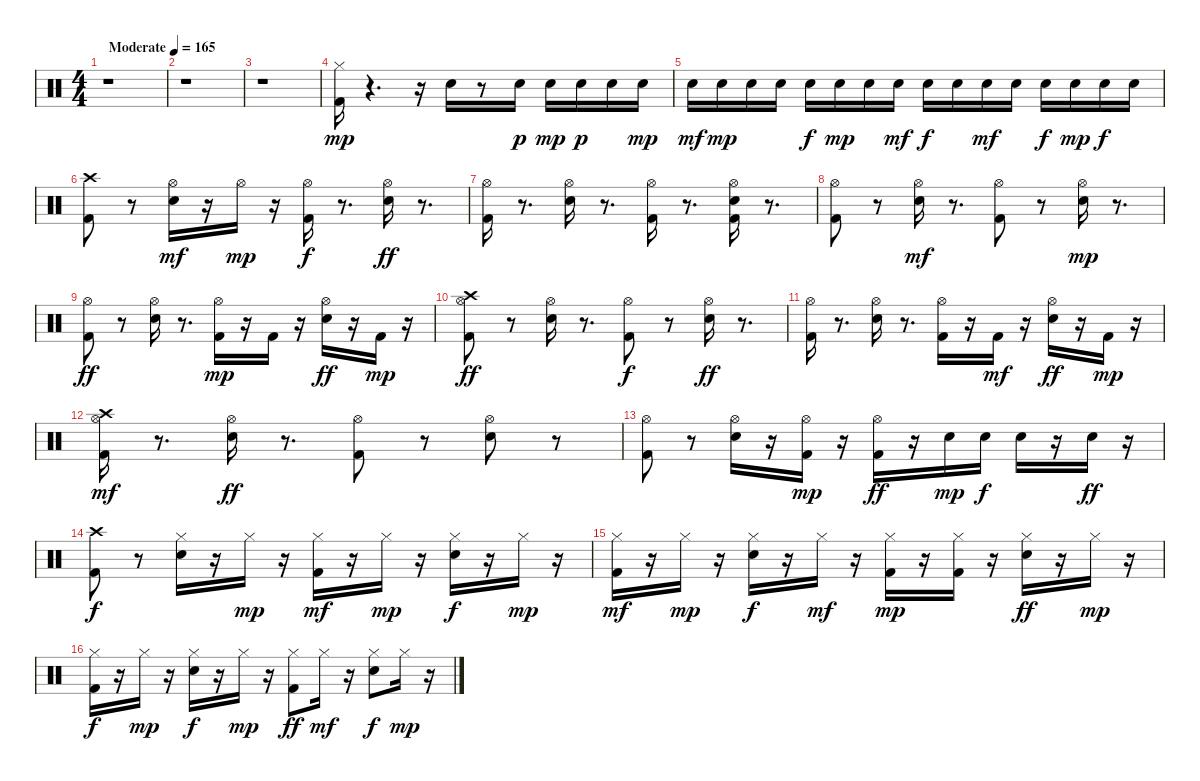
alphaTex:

\track "" {instrument percussion}
\staff {score}
\articulation defaults
\ts (4 4)
\tempo (165 "Moderate")
\clef neutral
\ks c
r.1{dy mp} |
r.1 |
r.1 |
("Kick (hit) 2" "Hi-Hat (closed)").16 r.4{d} r.16 "Electric Snare (hit)".16 r.8 "Electric Snare (hit)".16{dy p} "Electric Snare (hit)".16{dy mp} "Electric Snare (hit)".16{dy p} "Electric Snare (hit)".16 "Electric Snare (hit)".16{dy mp} |
"Electric Snare (hit)".16{dy mf} "Electric Snare (hit)".16{dy mp} "Electric Snare (hit)".16 "Electric Snare (hit)".16 "Electric Snare (hit)".16{dy f} "Electric Snare (hit)".16{dy mp} "Electric Snare (hit)".16 "Electric Snare (hit)".16{dy mf} "Electric Snare (hit)".16{dy f} "Electric Snare (hit)".16 "Electric Snare (hit)".16{dy mf} "Electric Snare (hit)".16 "Electric Snare (hit)".16{dy f} "Electric Snare (hit)".16{dy mp} "Electric Snare (hit)".16{dy f} "Electric Snare (hit)".16 |
("Crash high (hit)" "Kick (hit) 2").8 r.8 ("Electric Snare (hit)" "Hi-Hat (open)").16{dy mf} r.16 "Hi-Hat (open)".16{dy mp} r.16 ("Hi-Hat (open)" "Kick (hit) 2").16{dy f} r.8{d} ("Electric Snare (hit)" "Hi-Hat (open)").16{dy ff} r.8{d} |
("Kick (hit) 2" "Hi-Hat (open)").16 r.8{d} ("Electric Snare (hit)" "Hi-Hat (open)").16 r.8{d} ("Kick (hit) 2" "Hi-Hat (open)").16 r.8{d} ("Kick (hit) 2" "Hi-Hat (open)" "Electric Snare (hit)").16 r.8{d} |
("Kick (hit) 2" "Hi-Hat (open)").8 r.8 ("Hi-Hat (open)" "Electric Snare (hit)").16{dy mf} r.8{d} ("Hi-Hat (open)" "Kick (hit) 2").8 r.8 ("Electric Snare (hit)" "Hi-Hat (open)").16{dy mp} r.8{d} |
("Hi-Hat (open)" "Kick (hit) 2").8{dy ff} r.8 ("Electric Snare (hit)" "Hi-Hat (open)").16 r.8{d} ("Kick (hit) 2" "Hi-Hat (open)").16{dy mp} r.16 "Kick (hit) 2".16 r.16 ("Hi-Hat (open)" "Electric Snare (hit)").16{dy ff} r.16 "Kick (hit) 2".16{dy mp} r.16 |
("Hi-Hat (open)" "Crash high (hit)" "Kick (hit) 2").8{dy ff} r.8 ("Hi-Hat (open)" "Electric Snare (hit)").16 r.8{d} ("Hi-Hat (open)" "Kick (hit) 2").8{dy f} r.8 ("Hi-Hat (open)" "Electric Snare (hit)").16{dy ff} r.8{d} |
("Hi-Hat (open)" "Kick (hit) 2").16 r.8{d} ("Hi-Hat (open)" "Electric Snare (hit)").16 r.8{d} ("Kick (hit) 2" "Hi-Hat (open)").16 r.16 "Kick (hit) 2".16{dy mf} r.16 ("Electric Snare (hit)" "Hi-Hat (open)").16{dy ff} r.16 "Kick (hit) 2".16{dy mp} r.16 |
("Kick (hit) 2" "Crash high (hit)" "Hi-Hat (open)").16{dy mf} r.8{d} ("Electric Snare (hit)" "Hi-Hat (open)").16{dy ff} r.8{d} ("Kick (hit) 2" "Hi-Hat (open)").8 r.8 ("Hi-Hat (open)" "Electric Snare (hit)").8 r.8 |
("Hi-Hat (open)" "Kick (hit) 2").8 r.8 ("Hi-Hat (open)" "Electric Snare (hit)").16 r.16 ("Kick (hit) 2" "Hi-Hat (open)").16{dy mp} r.16 ("Kick (hit) 2" "Hi-Hat (open)").16{dy ff} r.16 "Electric Snare (hit)".16{dy mp} "Electric Snare (hit)".16{dy f} "Electric Snare (hit)".16 r.16 "Electric Snare (hit)".16{dy ff} r.16 |
("Crash high (hit)" "Kick (hit) 2").8{dy f} r.8 ("Electric Snare (hit)" "Hi-Hat (closed)").16 r.16 "Hi-Hat (closed)".16{dy mp} r.16 ("Kick (hit) 2" "Hi-Hat (closed)").16{dy mf} r.16 "Hi-Hat (closed)".16{dy mp} r.16 ("Hi-Hat (closed)" "Electric Snare (hit)").16{dy f} r.16 "Hi-Hat (closed)".16{dy mp} r.16 |
("Hi-Hat (closed)" "Kick (hit) 2").16{dy mf} r.16 "Hi-Hat (closed)".16{dy mp} r.16 ("Electric Snare (hit)" "Hi-Hat (closed)").16{dy f} r.16 "Hi-Hat (closed)".16{dy mf} r.16 ("Hi-Hat (closed)" "Kick (hit) 2").16{dy mp} r.16 ("Hi-Hat (closed)" "Kick (hit) 2").16 r.16 ("Electric Snare (hit)" "Hi-Hat (closed)").16{dy ff} r.16 "Hi-Hat (closed)".16{dy mp} r.16 |
("Hi-Hat (closed)" "Kick (hit) 2").16{dy f} r.16 "Hi-Hat (closed)".16{dy mp} r.16 ("Hi-Hat (closed)" "Electric Snare (hit)").16{dy f} r.16 "Hi-Hat (closed)".16{dy mp} r.16 ("Kick (hit) 2" "Hi-Hat (closed)").8{dy ff} "Hi-Hat (closed)".16{dy mf} r.16 ("Electric Snare (hit)" "Hi-Hat (closed)").8{dy f} "Hi-Hat (closed)".16{dy mp} r.16
